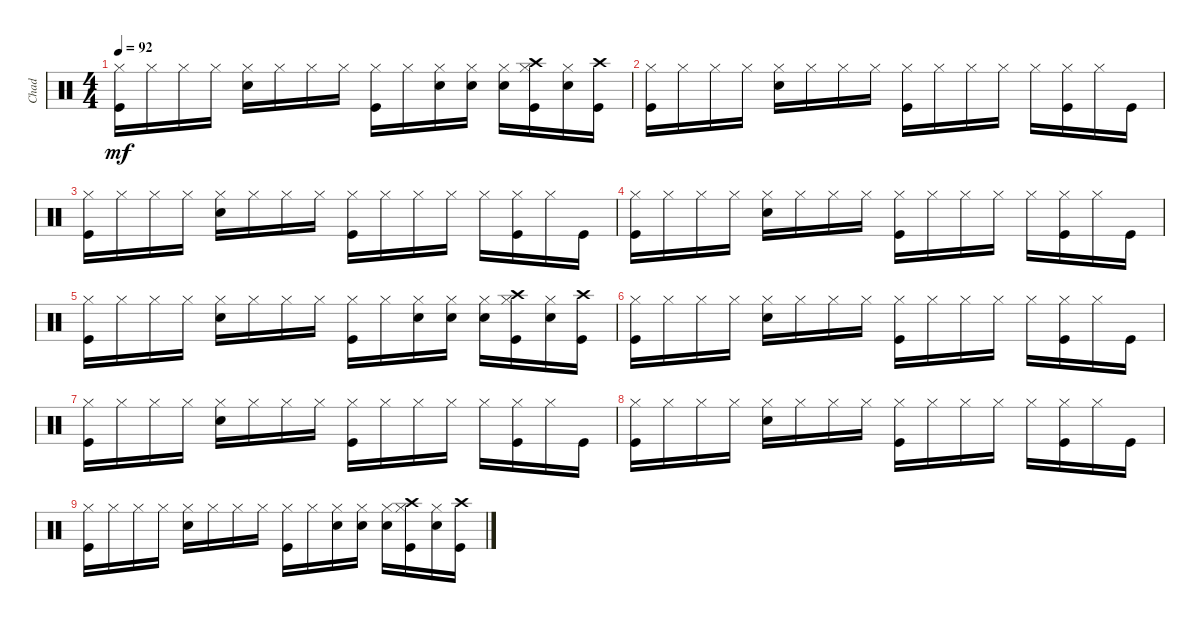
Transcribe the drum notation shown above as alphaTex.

\track ("Chad" "Chad") {instrument percussion}
\staff {score}
\articulation defaults
\ts (4 4)
\tempo 92
\clef neutral
\ks c
("Kick (hit)" "Hi-Hat (closed)").16{dy mf} "Hi-Hat (closed)".16 "Hi-Hat (closed)".16 "Hi-Hat (closed)".16 ("Snare (hit) 2" "Hi-Hat (closed)").16 "Hi-Hat (closed)".16 "Hi-Hat (closed)".16 "Hi-Hat (closed)".16 ("Kick (hit)" "Hi-Hat (closed)").16 "Hi-Hat (closed)".16 ("Hi-Hat (closed)" "Snare (hit) 2").16 ("Hi-Hat (closed)" "Snare (hit) 2").16 ("Hi-Hat (closed)" "Snare (hit) 2").16 ("Hi-Hat (closed)" "Kick (hit)" "Crash high (hit)").16 ("Hi-Hat (closed)" "Snare (hit) 2").16 ("Kick (hit)" "Crash high (hit)").16 |
("Kick (hit)" "Hi-Hat (closed)").16 "Hi-Hat (closed)".16 "Hi-Hat (closed)".16 "Hi-Hat (closed)".16 ("Snare (hit) 2" "Hi-Hat (closed)").16 "Hi-Hat (closed)".16 "Hi-Hat (closed)".16 "Hi-Hat (closed)".16 ("Kick (hit)" "Hi-Hat (closed)").16 "Hi-Hat (closed)".16 "Hi-Hat (closed)".16 "Hi-Hat (closed)".16 "Hi-Hat (closed)".16 ("Kick (hit)" "Hi-Hat (closed)").16 "Hi-Hat (closed)".16 "Kick (hit)".16 |
("Kick (hit)" "Hi-Hat (closed)").16 "Hi-Hat (closed)".16 "Hi-Hat (closed)".16 "Hi-Hat (closed)".16 ("Snare (hit) 2" "Hi-Hat (closed)").16 "Hi-Hat (closed)".16 "Hi-Hat (closed)".16 "Hi-Hat (closed)".16 ("Kick (hit)" "Hi-Hat (closed)").16 "Hi-Hat (closed)".16 "Hi-Hat (closed)".16 "Hi-Hat (closed)".16 "Hi-Hat (closed)".16 ("Kick (hit)" "Hi-Hat (closed)").16 "Hi-Hat (closed)".16 "Kick (hit)".16 |
("Kick (hit)" "Hi-Hat (closed)").16 "Hi-Hat (closed)".16 "Hi-Hat (closed)".16 "Hi-Hat (closed)".16 ("Snare (hit) 2" "Hi-Hat (closed)").16 "Hi-Hat (closed)".16 "Hi-Hat (closed)".16 "Hi-Hat (closed)".16 ("Kick (hit)" "Hi-Hat (closed)").16 "Hi-Hat (closed)".16 "Hi-Hat (closed)".16 "Hi-Hat (closed)".16 "Hi-Hat (closed)".16 ("Kick (hit)" "Hi-Hat (closed)").16 "Hi-Hat (closed)".16 "Kick (hit)".16 |
("Kick (hit)" "Hi-Hat (closed)").16 "Hi-Hat (closed)".16 "Hi-Hat (closed)".16 "Hi-Hat (closed)".16 ("Snare (hit) 2" "Hi-Hat (closed)").16 "Hi-Hat (closed)".16 "Hi-Hat (closed)".16 "Hi-Hat (closed)".16 ("Kick (hit)" "Hi-Hat (closed)").16 "Hi-Hat (closed)".16 ("Hi-Hat (closed)" "Snare (hit) 2").16 ("Hi-Hat (closed)" "Snare (hit) 2").16 ("Hi-Hat (closed)" "Snare (hit) 2").16 ("Hi-Hat (closed)" "Kick (hit)" "Crash high (hit)").16 ("Hi-Hat (closed)" "Snare (hit) 2").16 ("Kick (hit)" "Crash high (hit)").16 |
("Kick (hit)" "Hi-Hat (closed)").16 "Hi-Hat (closed)".16 "Hi-Hat (closed)".16 "Hi-Hat (closed)".16 ("Snare (hit) 2" "Hi-Hat (closed)").16 "Hi-Hat (closed)".16 "Hi-Hat (closed)".16 "Hi-Hat (closed)".16 ("Kick (hit)" "Hi-Hat (closed)").16 "Hi-Hat (closed)".16 "Hi-Hat (closed)".16 "Hi-Hat (closed)".16 "Hi-Hat (closed)".16 ("Kick (hit)" "Hi-Hat (closed)").16 "Hi-Hat (closed)".16 "Kick (hit)".16 |
("Kick (hit)" "Hi-Hat (closed)").16 "Hi-Hat (closed)".16 "Hi-Hat (closed)".16 "Hi-Hat (closed)".16 ("Snare (hit) 2" "Hi-Hat (closed)").16 "Hi-Hat (closed)".16 "Hi-Hat (closed)".16 "Hi-Hat (closed)".16 ("Kick (hit)" "Hi-Hat (closed)").16 "Hi-Hat (closed)".16 "Hi-Hat (closed)".16 "Hi-Hat (closed)".16 "Hi-Hat (closed)".16 ("Kick (hit)" "Hi-Hat (closed)").16 "Hi-Hat (closed)".16 "Kick (hit)".16 |
("Kick (hit)" "Hi-Hat (closed)").16 "Hi-Hat (closed)".16 "Hi-Hat (closed)".16 "Hi-Hat (closed)".16 ("Snare (hit) 2" "Hi-Hat (closed)").16 "Hi-Hat (closed)".16 "Hi-Hat (closed)".16 "Hi-Hat (closed)".16 ("Kick (hit)" "Hi-Hat (closed)").16 "Hi-Hat (closed)".16 "Hi-Hat (closed)".16 "Hi-Hat (closed)".16 "Hi-Hat (closed)".16 ("Kick (hit)" "Hi-Hat (closed)").16 "Hi-Hat (closed)".16 "Kick (hit)".16 |
("Kick (hit)" "Hi-Hat (closed)").16 "Hi-Hat (closed)".16 "Hi-Hat (closed)".16 "Hi-Hat (closed)".16 ("Snare (hit) 2" "Hi-Hat (closed)").16 "Hi-Hat (closed)".16 "Hi-Hat (closed)".16 "Hi-Hat (closed)".16 ("Kick (hit)" "Hi-Hat (closed)").16 "Hi-Hat (closed)".16 ("Hi-Hat (closed)" "Snare (hit) 2").16 ("Hi-Hat (closed)" "Snare (hit) 2").16 ("Hi-Hat (closed)" "Snare (hit) 2").16 ("Hi-Hat (closed)" "Kick (hit)" "Crash high (hit)").16 ("Hi-Hat (closed)" "Snare (hit) 2").16 ("Kick (hit)" "Crash high (hit)").16
